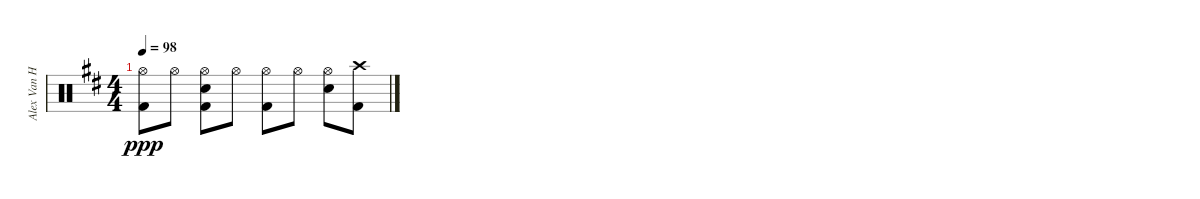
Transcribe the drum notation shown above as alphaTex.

\track ("Alex Van Halen" "Alex Van H") {instrument percussion}
\staff {score}
\articulation defaults
\ts (4 4)
\tempo 98
\clef neutral
\ks bminor
("Kick (hit) 2" "Hi-Hat (open)").8{dy ppp} "Hi-Hat (open)".8 ("Hi-Hat (open)" "Kick (hit) 2" "Electric Snare (hit)").8 "Hi-Hat (open)".8 ("Hi-Hat (open)" "Kick (hit) 2").8 "Hi-Hat (open)".8 ("Hi-Hat (open)" "Electric Snare (hit)").8 ("Crash high (hit)" "Kick (hit) 2").8
